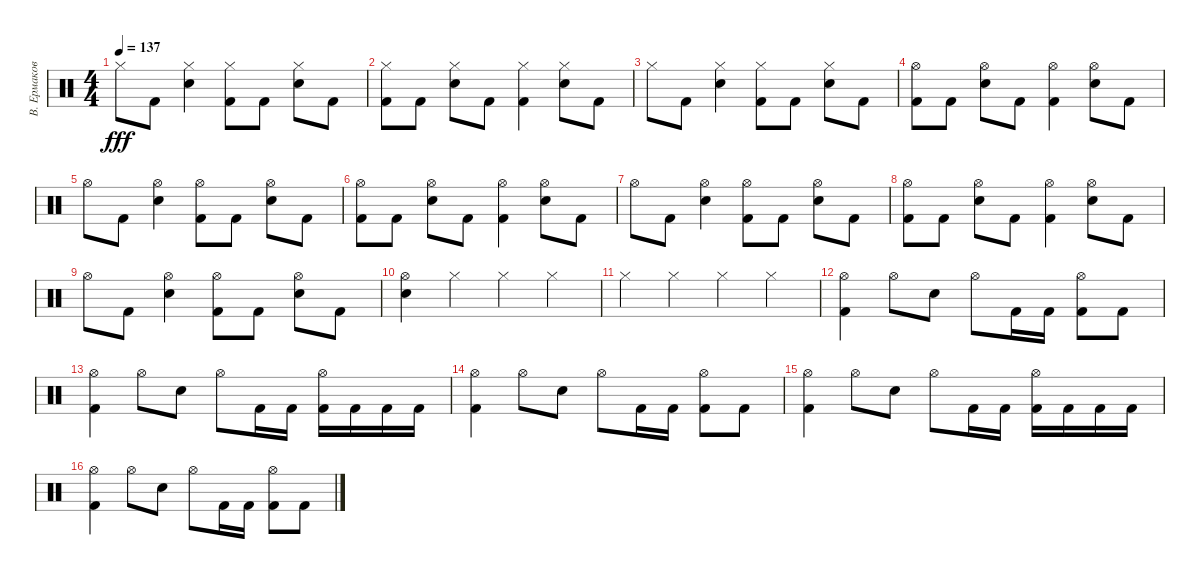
\track ("В. Ермаков" "В. Ермаков") {instrument percussion}
\staff {score}
\articulation defaults
\ts (4 4)
\tempo 137
\clef neutral
\ks c "Hi-Hat (closed)".8{dy fff} "Kick (hit) 2".8
("Hi-Hat (closed)" "Snare (hit) 2").4 ("Hi-Hat (closed)" "Kick (hit) 2").8 "Kick (hit) 2".8 ("Hi-Hat (closed)" "Snare (hit) 2").8 "Kick (hit) 2".8 |
("Kick (hit) 2" "Hi-Hat (closed)").8 "Kick (hit) 2".8 ("Snare (hit) 2" "Hi-Hat (closed)").8 "Kick (hit) 2".8 ("Kick (hit) 2" "Hi-Hat (closed)").4 ("Snare (hit) 2" "Hi-Hat (closed)").8 "Kick (hit) 2".8 |
"Hi-Hat (closed)".8 "Kick (hit) 2".8 ("Hi-Hat (closed)" "Snare (hit) 2").4 ("Hi-Hat (closed)" "Kick (hit) 2").8 "Kick (hit) 2".8 ("Hi-Hat (closed)" "Snare (hit) 2").8 "Kick (hit) 2".8 |
("Kick (hit) 2" "Hi-Hat (open)").8 "Kick (hit) 2".8 ("Snare (hit) 2" "Hi-Hat (open)").8 "Kick (hit) 2".8 ("Kick (hit) 2" "Hi-Hat (open)").4 ("Snare (hit) 2" "Hi-Hat (open)").8 "Kick (hit) 2".8 |
"Hi-Hat (open)".8 "Kick (hit) 2".8 ("Hi-Hat (open)" "Snare (hit) 2").4 ("Hi-Hat (open)" "Kick (hit) 2").8 "Kick (hit) 2".8 ("Hi-Hat (open)" "Snare (hit) 2").8 "Kick (hit) 2".8 |
("Kick (hit) 2" "Hi-Hat (open)").8 "Kick (hit) 2".8 ("Snare (hit) 2" "Hi-Hat (open)").8 "Kick (hit) 2".8 ("Kick (hit) 2" "Hi-Hat (open)").4 ("Snare (hit) 2" "Hi-Hat (open)").8 "Kick (hit) 2".8 |
"Hi-Hat (open)".8 "Kick (hit) 2".8 ("Hi-Hat (open)" "Snare (hit) 2").4 ("Hi-Hat (open)" "Kick (hit) 2").8 "Kick (hit) 2".8 ("Hi-Hat (open)" "Snare (hit) 2").8 "Kick (hit) 2".8 |
("Kick (hit) 2" "Hi-Hat (open)").8 "Kick (hit) 2".8 ("Snare (hit) 2" "Hi-Hat (open)").8 "Kick (hit) 2".8 ("Kick (hit) 2" "Hi-Hat (open)").4 ("Snare (hit) 2" "Hi-Hat (open)").8 "Kick (hit) 2".8 |
"Hi-Hat (open)".8 "Kick (hit) 2".8 ("Hi-Hat (open)" "Snare (hit) 2").4 ("Hi-Hat (open)" "Kick (hit) 2").8 "Kick (hit) 2".8 ("Hi-Hat (open)" "Snare (hit) 2").8 "Kick (hit) 2".8 |
("Hi-Hat (open)" "Snare (hit) 2").4 "Hi-Hat (closed)".4 "Hi-Hat (closed)".4 "Hi-Hat (closed)".4 |
"Hi-Hat (closed)".4 "Hi-Hat (closed)".4 "Hi-Hat (closed)".4 "Hi-Hat (closed)".4 |
("Hi-Hat (open)" "Kick (hit) 2").4 "Hi-Hat (open)".8 "Snare (hit) 2".8 "Hi-Hat (open)".8 "Kick (hit) 2".16 "Kick (hit) 2".16 ("Hi-Hat (open)" "Kick (hit) 2").8 "Kick (hit) 2".8 |
("Hi-Hat (open)" "Kick (hit) 2").4 "Hi-Hat (open)".8 "Snare (hit) 2".8 "Hi-Hat (open)".8 "Kick (hit) 2".16 "Kick (hit) 2".16 ("Hi-Hat (open)" "Kick (hit) 2").16 "Kick (hit) 2".16 "Kick (hit) 2".16 "Kick (hit) 2".16 |
("Hi-Hat (open)" "Kick (hit) 2").4 "Hi-Hat (open)".8 "Snare (hit) 2".8 "Hi-Hat (open)".8 "Kick (hit) 2".16 "Kick (hit) 2".16 ("Hi-Hat (open)" "Kick (hit) 2").8 "Kick (hit) 2".8 |
("Hi-Hat (open)" "Kick (hit) 2").4 "Hi-Hat (open)".8 "Snare (hit) 2".8 "Hi-Hat (open)".8 "Kick (hit) 2".16 "Kick (hit) 2".16 ("Hi-Hat (open)" "Kick (hit) 2").16 "Kick (hit) 2".16 "Kick (hit) 2".16 "Kick (hit) 2".16 |
("Hi-Hat (open)" "Kick (hit) 2").4 "Hi-Hat (open)".8 "Snare (hit) 2".8 "Hi-Hat (open)".8 "Kick (hit) 2".16 "Kick (hit) 2".16 ("Hi-Hat (open)" "Kick (hit) 2").8 "Kick (hit) 2".8
